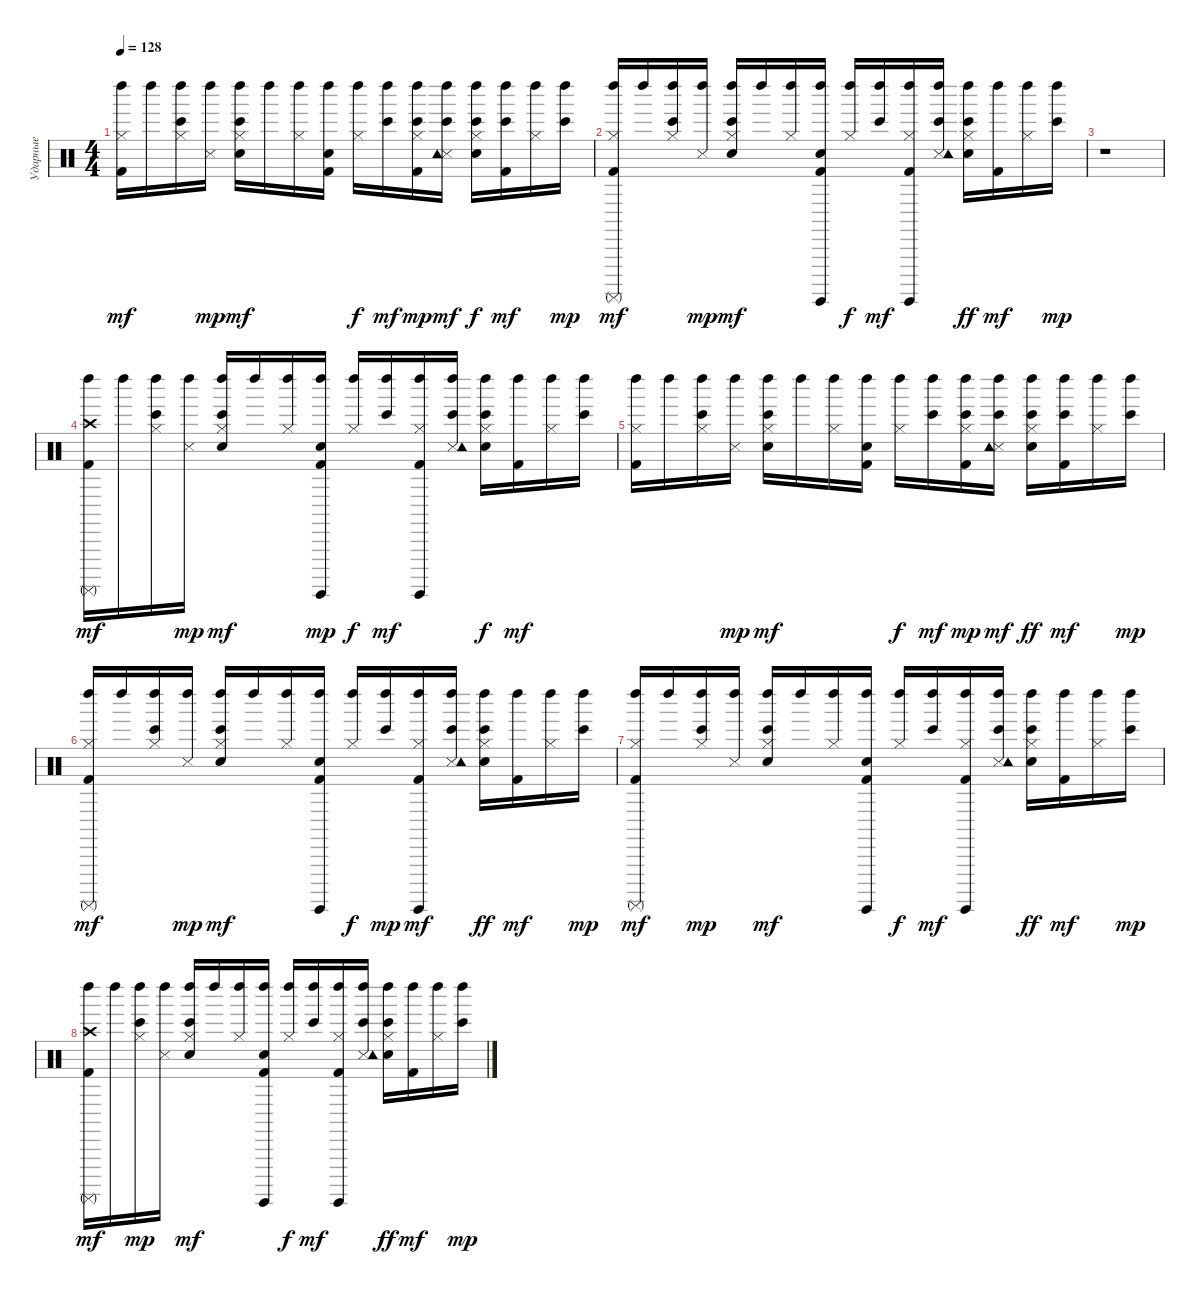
\track ("Ударные" "Ударные") {instrument percussion}
\staff {score}
\articulation defaults
\ts (4 4)
\tempo 128
\clef neutral
\ks c
("Kick (hit) 2" "Hi-Hat (closed)" "Left Maraca (hit)").16{dy mf} "Left Maraca (hit)".16 ("Bongo High (hit)" "Hi-Hat (closed)" "Left Maraca (hit)").16 ("Snare (side stick) 3" "Left Maraca (hit)").16{dy mp} ("Bongo High (hit)" "Electric Snare (hit)" "Hi-Hat (closed)" "Left Maraca (hit)").16{dy mf} "Left Maraca (hit)".16 ("Hi-Hat (closed)" "Left Maraca (hit)").16 ("Kick (hit) 2" "Electric Snare (hit)" "Left Maraca (hit)").16 ("Hi-Hat (closed)" "Left Maraca (hit)").16{dy f} ("Bongo High (hit)" "Left Maraca (hit)").16{dy mf} ("Bongo High (hit)" "Kick (hit) 2" "Hi-Hat (closed)" "Left Maraca (hit)").16{dy mp} ("Bongo High (hit)" "Snare (side stick) 3" "Tambourine (hit)" "Left Maraca (hit)").16{dy mf} ("Bongo High (hit)" "Electric Snare (hit)" "Hi-Hat (closed)" "Left Maraca (hit)").16{dy f} ("Bongo High (hit)" "Kick (hit) 2" "Left Maraca (hit)").16{dy mf} ("Hi-Hat (closed)" "Left Maraca (hit)").16 ("Bongo High (hit)" "Left Maraca (hit)").16{dy mp} |
("Kick (hit) 2" "Hi-Hat (closed)" "Left Maraca (hit)" "Surdo (mute)").16{dy mf} "Left Maraca (hit)".16 ("Bongo High (hit)" "Hi-Hat (closed)" "Left Maraca (hit)").16 ("Snare (side stick) 3" "Left Maraca (hit)").16{dy mp} ("Bongo High (hit)" "Electric Snare (hit)" "Hi-Hat (closed)" "Left Maraca (hit)").16{dy mf} "Left Maraca (hit)".16 ("Hi-Hat (closed)" "Left Maraca (hit)").16 ("Kick (hit) 2" "Electric Snare (hit)" "Left Maraca (hit)" "Surdo (hit)").16 ("Hi-Hat (closed)" "Left Maraca (hit)").16{dy f} ("Bongo High (hit)" "Left Maraca (hit)").16{dy mf} ("Kick (hit) 2" "Hi-Hat (closed)" "Left Maraca (hit)" "Surdo (hit)").16 ("Bongo High (hit)" "Snare (side stick) 3" "Tambourine (hit)" "Left Maraca (hit)").16 ("Bongo High (hit)" "Electric Snare (hit)" "Hi-Hat (closed)" "Left Maraca (hit)").16{dy ff} ("Kick (hit) 2" "Left Maraca (hit)").16{dy mf} ("Hi-Hat (closed)" "Left Maraca (hit)").16 ("Bongo High (hit)" "Left Maraca (hit)").16{dy mp} |
r.1 |
("Kick (hit) 2" "Crash high (hit)" "Left Maraca (hit)" "Surdo (mute)").16{dy mf} "Left Maraca (hit)".16 ("Bongo High (hit)" "Hi-Hat (closed)" "Left Maraca (hit)").16 ("Snare (side stick) 3" "Left Maraca (hit)").16{dy mp} ("Bongo High (hit)" "Electric Snare (hit)" "Hi-Hat (closed)" "Left Maraca (hit)").16{dy mf} "Left Maraca (hit)".16 ("Hi-Hat (closed)" "Left Maraca (hit)").16 ("Kick (hit) 2" "Electric Snare (hit)" "Left Maraca (hit)" "Surdo (hit)").16{dy mp} ("Hi-Hat (closed)" "Left Maraca (hit)").16{dy f} ("Bongo High (hit)" "Left Maraca (hit)").16{dy mf} ("Kick (hit) 2" "Hi-Hat (closed)" "Left Maraca (hit)" "Surdo (hit)").16 ("Bongo High (hit)" "Snare (side stick) 3" "Tambourine (hit)" "Left Maraca (hit)").16 ("Bongo High (hit)" "Electric Snare (hit)" "Hi-Hat (closed)" "Left Maraca (hit)").16{dy f} ("Kick (hit) 2" "Left Maraca (hit)").16{dy mf} ("Hi-Hat (closed)" "Left Maraca (hit)").16 ("Bongo High (hit)" "Left Maraca (hit)").16 |
("Kick (hit) 2" "Hi-Hat (closed)" "Left Maraca (hit)").16 "Left Maraca (hit)".16 ("Bongo High (hit)" "Hi-Hat (closed)" "Left Maraca (hit)").16 ("Snare (side stick) 3" "Left Maraca (hit)").16{dy mp} ("Bongo High (hit)" "Electric Snare (hit)" "Hi-Hat (closed)" "Left Maraca (hit)").16{dy mf} "Left Maraca (hit)".16 ("Hi-Hat (closed)" "Left Maraca (hit)").16 ("Kick (hit) 2" "Electric Snare (hit)" "Left Maraca (hit)").16 ("Hi-Hat (closed)" "Left Maraca (hit)").16{dy f} ("Bongo High (hit)" "Left Maraca (hit)").16{dy mf} ("Bongo High (hit)" "Kick (hit) 2" "Hi-Hat (closed)" "Left Maraca (hit)").16{dy mp} ("Bongo High (hit)" "Snare (side stick) 3" "Tambourine (hit)" "Left Maraca (hit)").16{dy mf} ("Bongo High (hit)" "Electric Snare (hit)" "Hi-Hat (closed)" "Left Maraca (hit)").16{dy ff} ("Bongo High (hit)" "Kick (hit) 2" "Left Maraca (hit)").16{dy mf} ("Hi-Hat (closed)" "Left Maraca (hit)").16 ("Bongo High (hit)" "Left Maraca (hit)").16{dy mp} |
("Kick (hit) 2" "Hi-Hat (closed)" "Left Maraca (hit)" "Surdo (mute)").16{dy mf} "Left Maraca (hit)".16 ("Bongo High (hit)" "Hi-Hat (closed)" "Left Maraca (hit)").16 ("Snare (side stick) 3" "Left Maraca (hit)").16{dy mp} ("Bongo High (hit)" "Electric Snare (hit)" "Hi-Hat (closed)" "Left Maraca (hit)").16{dy mf} "Left Maraca (hit)".16 ("Hi-Hat (closed)" "Left Maraca (hit)").16 ("Kick (hit) 2" "Electric Snare (hit)" "Left Maraca (hit)" "Surdo (hit)").16 ("Hi-Hat (closed)" "Left Maraca (hit)").16{dy f} ("Bongo High (hit)" "Left Maraca (hit)").16{dy mp} ("Kick (hit) 2" "Hi-Hat (closed)" "Left Maraca (hit)" "Surdo (hit)").16{dy mf} ("Bongo High (hit)" "Snare (side stick) 3" "Tambourine (hit)" "Left Maraca (hit)").16 ("Bongo High (hit)" "Electric Snare (hit)" "Hi-Hat (closed)" "Left Maraca (hit)").16{dy ff} ("Kick (hit) 2" "Left Maraca (hit)").16{dy mf} ("Hi-Hat (closed)" "Left Maraca (hit)").16 ("Bongo High (hit)" "Left Maraca (hit)").16{dy mp} |
("Kick (hit) 2" "Hi-Hat (closed)" "Left Maraca (hit)" "Surdo (mute)").16{dy mf} "Left Maraca (hit)".16 ("Bongo High (hit)" "Hi-Hat (closed)" "Left Maraca (hit)").16{dy mp} ("Snare (side stick) 3" "Left Maraca (hit)").16 ("Bongo High (hit)" "Electric Snare (hit)" "Hi-Hat (closed)" "Left Maraca (hit)").16{dy mf} "Left Maraca (hit)".16 ("Hi-Hat (closed)" "Left Maraca (hit)").16 ("Kick (hit) 2" "Electric Snare (hit)" "Left Maraca (hit)" "Surdo (hit)").16 ("Hi-Hat (closed)" "Left Maraca (hit)").16{dy f} ("Bongo High (hit)" "Left Maraca (hit)").16{dy mf} ("Kick (hit) 2" "Hi-Hat (closed)" "Left Maraca (hit)" "Surdo (hit)").16 ("Bongo High (hit)" "Snare (side stick) 3" "Tambourine (hit)" "Left Maraca (hit)").16 ("Bongo High (hit)" "Electric Snare (hit)" "Hi-Hat (closed)" "Left Maraca (hit)").16{dy ff} ("Kick (hit) 2" "Left Maraca (hit)").16{dy mf} ("Hi-Hat (closed)" "Left Maraca (hit)").16 ("Bongo High (hit)" "Left Maraca (hit)").16{dy mp} |
("Kick (hit) 2" "Crash high (hit)" "Left Maraca (hit)" "Surdo (mute)").16{dy mf} "Left Maraca (hit)".16 ("Bongo High (hit)" "Hi-Hat (closed)" "Left Maraca (hit)").16{dy mp} ("Snare (side stick) 3" "Left Maraca (hit)").16 ("Bongo High (hit)" "Electric Snare (hit)" "Hi-Hat (closed)" "Left Maraca (hit)").16{dy mf} "Left Maraca (hit)".16 ("Hi-Hat (closed)" "Left Maraca (hit)").16 ("Kick (hit) 2" "Electric Snare (hit)" "Left Maraca (hit)" "Surdo (hit)").16 ("Hi-Hat (closed)" "Left Maraca (hit)").16{dy f} ("Bongo High (hit)" "Left Maraca (hit)").16{dy mf} ("Kick (hit) 2" "Hi-Hat (closed)" "Left Maraca (hit)" "Surdo (hit)").16 ("Bongo High (hit)" "Snare (side stick) 3" "Tambourine (hit)" "Left Maraca (hit)").16 ("Bongo High (hit)" "Electric Snare (hit)" "Hi-Hat (closed)" "Left Maraca (hit)").16{dy ff} ("Kick (hit) 2" "Left Maraca (hit)").16{dy mf} ("Hi-Hat (closed)" "Left Maraca (hit)").16 ("Bongo High (hit)" "Left Maraca (hit)").16{dy mp}
